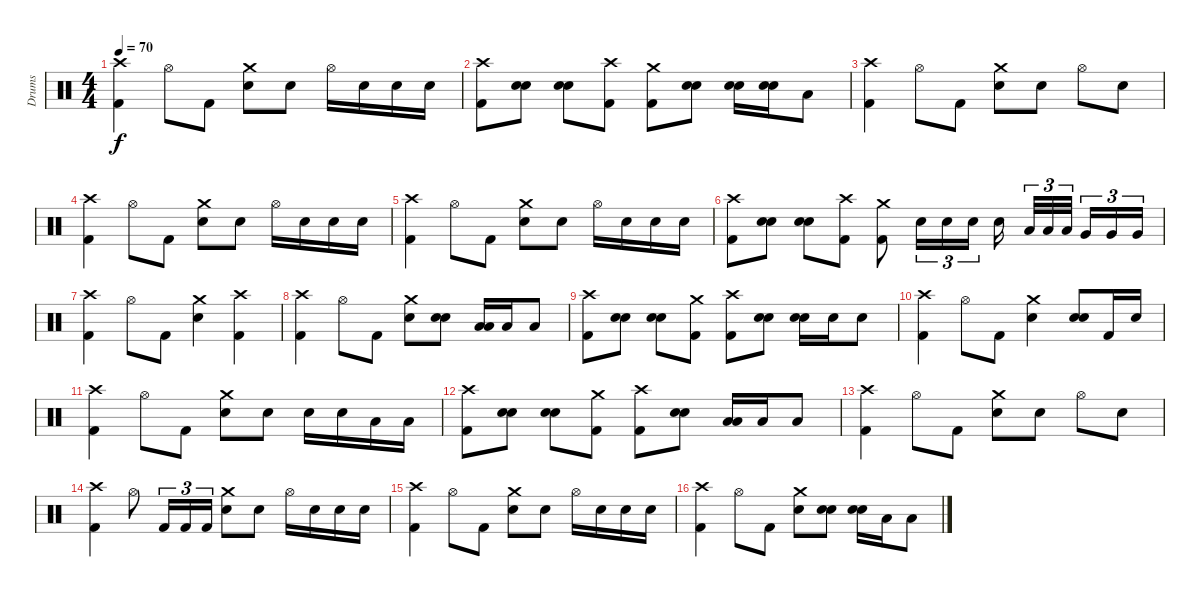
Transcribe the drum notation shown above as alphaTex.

\track ("Drums" "Drums") {instrument percussion}
\staff {score}
\articulation defaults
\ts (4 4)
\tempo 70
\clef neutral
\ks c
("Crash high (hit)" "Kick (hit) 2").4{dy f} "Hi-Hat (open)".8 "Kick (hit) 2".8 ("Crash medium (hit)" "Electric Snare (hit)").8 "Electric Snare (hit)".8 "Hi-Hat (open)".16 "Electric Snare (hit)".16 "Electric Snare (hit)".16 "Electric Snare (hit)".16 |
("Crash high (hit)" "Kick (hit) 2").8 ("Electric Snare (hit)" "Electric Snare (hit)").8{bu 60} ("Electric Snare (hit)" "Electric Snare (hit)").8{bu 60} ("Crash high (hit)" "Kick (hit) 2").8 ("Crash medium (hit)" "Kick (hit) 2").8 ("Electric Snare (hit)" "Electric Snare (hit)").8{bu 60} ("Electric Snare (hit)" "Electric Snare (hit)").16{bu 60} ("Electric Snare (hit)" "Electric Snare (hit)").16{bu 60} "Low Tom (hit)".8 |
("Crash high (hit)" "Kick (hit) 2").4 "Hi-Hat (open)".8 "Kick (hit) 2".8 ("Crash medium (hit)" "Electric Snare (hit)").8 "Electric Snare (hit)".8 "Hi-Hat (open)".8 "Electric Snare (hit)".8 |
("Crash high (hit)" "Kick (hit) 2").4 "Hi-Hat (open)".8 "Kick (hit) 2".8 ("Crash medium (hit)" "Electric Snare (hit)").8 "Electric Snare (hit)".8 "Hi-Hat (open)".16 "Electric Snare (hit)".16 "Electric Snare (hit)".16 "Electric Snare (hit)".16 |
("Crash high (hit)" "Kick (hit) 2").4 "Hi-Hat (open)".8 "Kick (hit) 2".8 ("Crash medium (hit)" "Electric Snare (hit)").8 "Electric Snare (hit)".8 "Hi-Hat (open)".16 "Electric Snare (hit)".16 "Electric Snare (hit)".16 "Electric Snare (hit)".16 |
("Crash high (hit)" "Kick (hit) 2").8 ("Electric Snare (hit)" "Electric Snare (hit)").8{bu 60} ("Electric Snare (hit)" "Electric Snare (hit)").8{bu 60} ("Crash high (hit)" "Kick (hit) 2").8 ("Crash medium (hit)" "Kick (hit) 2").8 "Electric Snare (hit)".16{tu (3 2)} "Electric Snare (hit)".16{tu (3 2)} "Electric Snare (hit)".16{tu (3 2)} "Electric Snare (hit)".16 "Low Tom (hit)".32{tu (3 2)} "Low Tom (hit)".32{tu (3 2)} "Low Tom (hit)".32{tu (3 2)} "Very Low Tom (hit)".16{tu (3 2)} "Very Low Tom (hit)".16{tu (3 2)} "Very Low Tom (hit)".16{tu (3 2)} |
("Crash high (hit)" "Kick (hit) 2").4 "Hi-Hat (open)".8 "Kick (hit) 2".8 ("Crash medium (hit)" "Electric Snare (hit)").4 ("Crash high (hit)" "Kick (hit) 2").4 |
("Crash high (hit)" "Kick (hit) 2").4 "Hi-Hat (open)".8 "Kick (hit) 2".8 ("Crash medium (hit)" "Electric Snare (hit)").8 ("Electric Snare (hit)" "Electric Snare (hit)").8{bu 60} ("Low Tom (hit)" "Low Tom (hit)").16{bu 60} "Low Tom (hit)".16 "Low Tom (hit)".8 |
("Crash high (hit)" "Kick (hit) 2").8 ("Electric Snare (hit)" "Electric Snare (hit)").8{bu 60} ("Electric Snare (hit)" "Electric Snare (hit)").8{bu 60} ("Crash medium (hit)" "Kick (hit) 2").8 ("Crash high (hit)" "Kick (hit) 2").8 ("Electric Snare (hit)" "Electric Snare (hit)").8{bu 60} ("Electric Snare (hit)" "Electric Snare (hit)").16{bu 60} "Electric Snare (hit)".16 "Electric Snare (hit)".8 |
("Crash high (hit)" "Kick (hit) 2").4 "Hi-Hat (open)".8 "Kick (hit) 2".8 ("Crash medium (hit)" "Electric Snare (hit)").4 ("Electric Snare (hit)" "Electric Snare (hit)").8{bu 60} "Kick (hit) 2".16 "Electric Snare (hit)".16 |
("Crash high (hit)" "Kick (hit) 2").4 "Hi-Hat (open)".8 "Kick (hit) 2".8 ("Crash medium (hit)" "Electric Snare (hit)").8 "Electric Snare (hit)".8 "Electric Snare (hit)".16 "Electric Snare (hit)".16 "Low Tom (hit)".16 "Low Tom (hit)".16 |
("Crash high (hit)" "Kick (hit) 2").8 ("Electric Snare (hit)" "Electric Snare (hit)").8{bu 60} ("Electric Snare (hit)" "Electric Snare (hit)").8{bu 60} ("Crash medium (hit)" "Kick (hit) 2").8 ("Crash high (hit)" "Kick (hit) 2").8 ("Electric Snare (hit)" "Electric Snare (hit)").8{bu 60} ("Low Tom (hit)" "Low Tom (hit)").16{bu 60} "Low Tom (hit)".16 "Low Tom (hit)".8 |
("Crash high (hit)" "Kick (hit) 2").4 "Hi-Hat (open)".8 "Kick (hit) 2".8 ("Crash medium (hit)" "Electric Snare (hit)").8 "Electric Snare (hit)".8 "Hi-Hat (open)".8 "Electric Snare (hit)".8 |
("Crash high (hit)" "Kick (hit) 2").4 "Hi-Hat (open)".8 "Kick (hit) 2".16{tu (3 2)} "Kick (hit) 2".16{tu (3 2)} "Kick (hit) 2".16{tu (3 2)} ("Crash medium (hit)" "Electric Snare (hit)").8 "Electric Snare (hit)".8 "Hi-Hat (open)".16 "Electric Snare (hit)".16 "Electric Snare (hit)".16 "Electric Snare (hit)".16 |
("Crash high (hit)" "Kick (hit) 2").4 "Hi-Hat (open)".8 "Kick (hit) 2".8 ("Crash medium (hit)" "Electric Snare (hit)").8 "Electric Snare (hit)".8 "Hi-Hat (open)".16 "Electric Snare (hit)".16 "Electric Snare (hit)".16 "Electric Snare (hit)".16 |
("Crash high (hit)" "Kick (hit) 2").4 "Hi-Hat (open)".8 "Kick (hit) 2".8 ("Crash medium (hit)" "Electric Snare (hit)").8 ("Electric Snare (hit)" "Electric Snare (hit)").8{bu 60} ("Electric Snare (hit)" "Electric Snare (hit)").16{bu 60} "Low Tom (hit)".16 "Low Tom (hit)".8
